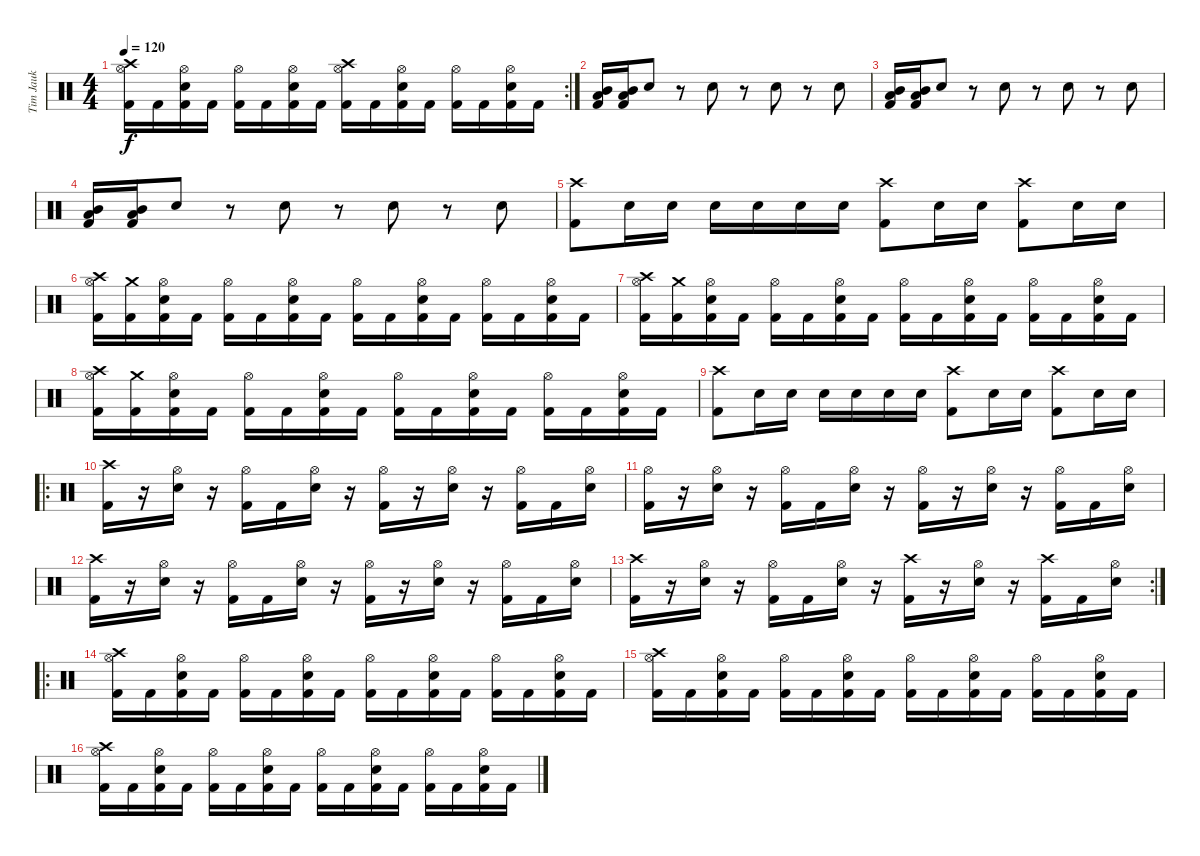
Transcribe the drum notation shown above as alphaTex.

\track ("Tim Jauk" "Tim Jauk") {instrument percussion}
\staff {score}
\articulation defaults
\rc 2
\ts (4 4)
\tempo 120
\clef neutral
\ks c
("Crash high (hit)" "Hi-Hat (open)" "Kick (hit) 2").16{dy f} "Kick (hit) 2".16 ("Hi-Hat (open)" "Snare (hit) 2" "Kick (hit) 2").16 "Kick (hit) 2".16 ("Hi-Hat (open)" "Kick (hit) 2").16 "Kick (hit) 2".16 ("Hi-Hat (open)" "Snare (hit) 2" "Kick (hit) 2").16 "Kick (hit) 2".16 ("Crash high (hit)" "Hi-Hat (open)" "Kick (hit) 2").16 "Kick (hit) 2".16 ("Hi-Hat (open)" "Snare (hit) 2" "Kick (hit) 2").16 "Kick (hit) 2".16 ("Hi-Hat (open)" "Kick (hit) 2").16 "Kick (hit) 2".16 ("Hi-Hat (open)" "Snare (hit) 2" "Kick (hit) 2").16 "Kick (hit) 2".16 |
("Low Tom (hit)" "Mid Tom (hit)" "Kick (hit) 2").16 ("Low Tom (hit)" "Mid Tom (hit)" "Kick (hit) 2").16 "Snare (hit) 2".8 r.8 "Snare (hit) 2".8 r.8 "Snare (hit) 2".8 r.8 "Snare (hit) 2".8 |
("Low Tom (hit)" "Mid Tom (hit)" "Kick (hit) 2").16 ("Low Tom (hit)" "Mid Tom (hit)" "Kick (hit) 2").16 "Snare (hit) 2".8 r.8 "Snare (hit) 2".8 r.8 "Snare (hit) 2".8 r.8 "Snare (hit) 2".8 |
("Low Tom (hit)" "Mid Tom (hit)" "Kick (hit) 2").16 ("Low Tom (hit)" "Mid Tom (hit)" "Kick (hit) 2").16 "Snare (hit) 2".8 r.8 "Snare (hit) 2".8 r.8 "Snare (hit) 2".8 r.8 "Snare (hit) 2".8 |
("Crash high (hit)" "Kick (hit) 2").8 "Snare (hit) 2".16 "Snare (hit) 2".16 "Snare (hit) 2".16 "Snare (hit) 2".16 "Snare (hit) 2".16 "Snare (hit) 2".16 ("Crash high (hit)" "Kick (hit) 2").8 "Snare (hit) 2".16 "Snare (hit) 2".16 ("Crash high (hit)" "Kick (hit) 2").8 "Snare (hit) 2".16 "Snare (hit) 2".16 |
("Crash high (hit)" "Hi-Hat (open)" "Kick (hit) 2").16 ("Crash medium (hit)" "Kick (hit) 2").16 ("Hi-Hat (open)" "Snare (hit) 2" "Kick (hit) 2").16 "Kick (hit) 2".16 ("Hi-Hat (open)" "Kick (hit) 2").16 "Kick (hit) 2".16 ("Hi-Hat (open)" "Snare (hit) 2" "Kick (hit) 2").16 "Kick (hit) 2".16 ("Hi-Hat (open)" "Kick (hit) 2").16 "Kick (hit) 2".16 ("Hi-Hat (open)" "Snare (hit) 2" "Kick (hit) 2").16 "Kick (hit) 2".16 ("Hi-Hat (open)" "Kick (hit) 2").16 "Kick (hit) 2".16 ("Hi-Hat (open)" "Snare (hit) 2" "Kick (hit) 2").16 "Kick (hit) 2".16 |
("Crash high (hit)" "Hi-Hat (open)" "Kick (hit) 2").16 ("Crash medium (hit)" "Kick (hit) 2").16 ("Hi-Hat (open)" "Snare (hit) 2" "Kick (hit) 2").16 "Kick (hit) 2".16 ("Hi-Hat (open)" "Kick (hit) 2").16 "Kick (hit) 2".16 ("Hi-Hat (open)" "Snare (hit) 2" "Kick (hit) 2").16 "Kick (hit) 2".16 ("Hi-Hat (open)" "Kick (hit) 2").16 "Kick (hit) 2".16 ("Hi-Hat (open)" "Snare (hit) 2" "Kick (hit) 2").16 "Kick (hit) 2".16 ("Hi-Hat (open)" "Kick (hit) 2").16 "Kick (hit) 2".16 ("Hi-Hat (open)" "Snare (hit) 2" "Kick (hit) 2").16 "Kick (hit) 2".16 |
("Crash high (hit)" "Hi-Hat (open)" "Kick (hit) 2").16 ("Crash medium (hit)" "Kick (hit) 2").16 ("Hi-Hat (open)" "Snare (hit) 2" "Kick (hit) 2").16 "Kick (hit) 2".16 ("Hi-Hat (open)" "Kick (hit) 2").16 "Kick (hit) 2".16 ("Hi-Hat (open)" "Snare (hit) 2" "Kick (hit) 2").16 "Kick (hit) 2".16 ("Hi-Hat (open)" "Kick (hit) 2").16 "Kick (hit) 2".16 ("Hi-Hat (open)" "Snare (hit) 2" "Kick (hit) 2").16 "Kick (hit) 2".16 ("Hi-Hat (open)" "Kick (hit) 2").16 "Kick (hit) 2".16 ("Hi-Hat (open)" "Snare (hit) 2" "Kick (hit) 2").16 "Kick (hit) 2".16 |
("Crash high (hit)" "Kick (hit) 2").8 "Snare (hit) 2".16 "Snare (hit) 2".16 "Snare (hit) 2".16 "Snare (hit) 2".16 "Snare (hit) 2".16 "Snare (hit) 2".16 ("Crash high (hit)" "Kick (hit) 2").8 "Snare (hit) 2".16 "Snare (hit) 2".16 ("Crash high (hit)" "Kick (hit) 2").8 "Snare (hit) 2".16 "Snare (hit) 2".16 |
\ro
("Crash high (hit)" "Kick (hit) 2").16 r.16 ("Hi-Hat (open)" "Snare (hit) 2").16 r.16 ("Hi-Hat (open)" "Kick (hit) 2").16 "Kick (hit) 2".16 ("Hi-Hat (open)" "Snare (hit) 2").16 r.16 ("Hi-Hat (open)" "Kick (hit) 2").16 r.16 ("Hi-Hat (open)" "Snare (hit) 2").16 r.16 ("Hi-Hat (open)" "Kick (hit) 2").16 "Kick (hit) 2".16 ("Hi-Hat (open)" "Snare (hit) 2").16 |
("Hi-Hat (open)" "Kick (hit) 2").16 r.16 ("Hi-Hat (open)" "Snare (hit) 2").16 r.16 ("Hi-Hat (open)" "Kick (hit) 2").16 "Kick (hit) 2".16 ("Hi-Hat (open)" "Snare (hit) 2").16 r.16 ("Hi-Hat (open)" "Kick (hit) 2").16 r.16 ("Hi-Hat (open)" "Snare (hit) 2").16 r.16 ("Hi-Hat (open)" "Kick (hit) 2").16 "Kick (hit) 2".16 ("Hi-Hat (open)" "Snare (hit) 2").16 |
("Crash high (hit)" "Kick (hit) 2").16 r.16 ("Hi-Hat (open)" "Snare (hit) 2").16 r.16 ("Hi-Hat (open)" "Kick (hit) 2").16 "Kick (hit) 2".16 ("Hi-Hat (open)" "Snare (hit) 2").16 r.16 ("Hi-Hat (open)" "Kick (hit) 2").16 r.16 ("Hi-Hat (open)" "Snare (hit) 2").16 r.16 ("Hi-Hat (open)" "Kick (hit) 2").16 "Kick (hit) 2".16 ("Hi-Hat (open)" "Snare (hit) 2").16 |
\rc 2
("Crash high (hit)" "Kick (hit) 2").16 r.16 ("Hi-Hat (open)" "Snare (hit) 2").16 r.16 ("Hi-Hat (open)" "Kick (hit) 2").16 "Kick (hit) 2".16 ("Hi-Hat (open)" "Snare (hit) 2").16 r.16 ("Crash high (hit)" "Kick (hit) 2").16 r.16 ("Hi-Hat (open)" "Snare (hit) 2").16 r.16 ("Crash high (hit)" "Kick (hit) 2").16 "Kick (hit) 2".16 ("Hi-Hat (open)" "Snare (hit) 2").16 |
\ro
("Crash high (hit)" "Hi-Hat (open)" "Kick (hit) 2").16 "Kick (hit) 2".16 ("Hi-Hat (open)" "Snare (hit) 2" "Kick (hit) 2").16 "Kick (hit) 2".16 ("Hi-Hat (open)" "Kick (hit) 2").16 "Kick (hit) 2".16 ("Hi-Hat (open)" "Snare (hit) 2" "Kick (hit) 2").16 "Kick (hit) 2".16 ("Hi-Hat (open)" "Kick (hit) 2").16 "Kick (hit) 2".16 ("Hi-Hat (open)" "Snare (hit) 2" "Kick (hit) 2").16 "Kick (hit) 2".16 ("Hi-Hat (open)" "Kick (hit) 2").16 "Kick (hit) 2".16 ("Hi-Hat (open)" "Snare (hit) 2" "Kick (hit) 2").16 "Kick (hit) 2".16 |
("Crash high (hit)" "Hi-Hat (open)" "Kick (hit) 2").16 "Kick (hit) 2".16 ("Hi-Hat (open)" "Snare (hit) 2" "Kick (hit) 2").16 "Kick (hit) 2".16 ("Hi-Hat (open)" "Kick (hit) 2").16 "Kick (hit) 2".16 ("Hi-Hat (open)" "Snare (hit) 2" "Kick (hit) 2").16 "Kick (hit) 2".16 ("Hi-Hat (open)" "Kick (hit) 2").16 "Kick (hit) 2".16 ("Hi-Hat (open)" "Snare (hit) 2" "Kick (hit) 2").16 "Kick (hit) 2".16 ("Hi-Hat (open)" "Kick (hit) 2").16 "Kick (hit) 2".16 ("Hi-Hat (open)" "Snare (hit) 2" "Kick (hit) 2").16 "Kick (hit) 2".16 |
("Crash high (hit)" "Hi-Hat (open)" "Kick (hit) 2").16 "Kick (hit) 2".16 ("Hi-Hat (open)" "Snare (hit) 2" "Kick (hit) 2").16 "Kick (hit) 2".16 ("Hi-Hat (open)" "Kick (hit) 2").16 "Kick (hit) 2".16 ("Hi-Hat (open)" "Snare (hit) 2" "Kick (hit) 2").16 "Kick (hit) 2".16 ("Hi-Hat (open)" "Kick (hit) 2").16 "Kick (hit) 2".16 ("Hi-Hat (open)" "Snare (hit) 2" "Kick (hit) 2").16 "Kick (hit) 2".16 ("Hi-Hat (open)" "Kick (hit) 2").16 "Kick (hit) 2".16 ("Hi-Hat (open)" "Snare (hit) 2" "Kick (hit) 2").16 "Kick (hit) 2".16
